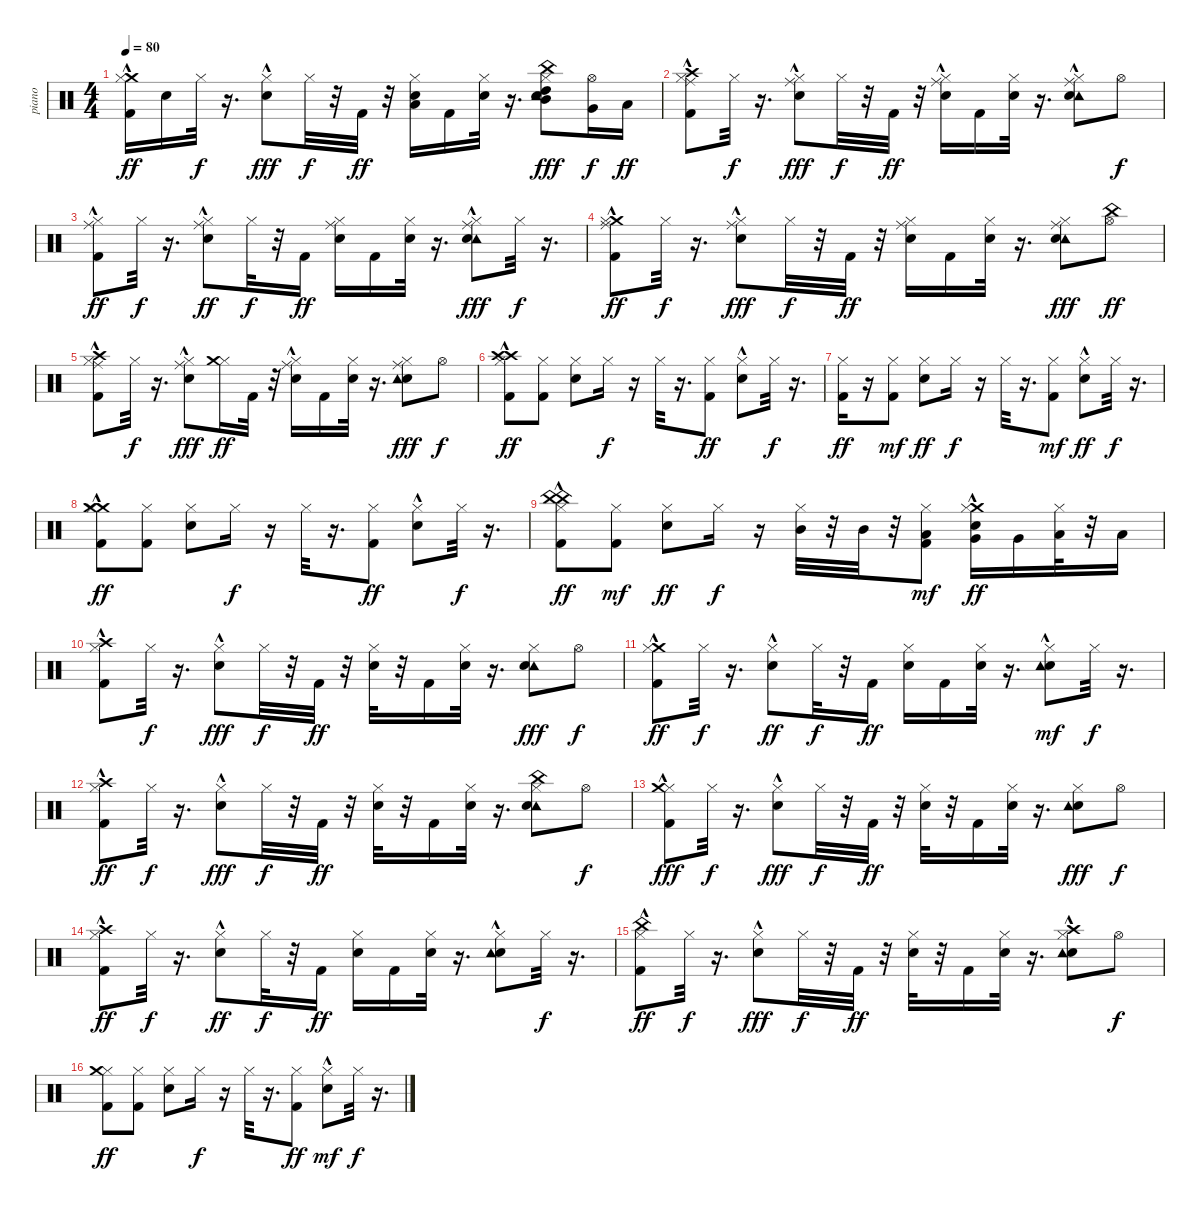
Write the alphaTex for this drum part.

\track ("piano" "piano") {instrument percussion}
\staff {score}
\articulation defaults
\ts (4 4)
\tempo 80
\clef neutral
\ks c
("Crash medium (hit)" "Kick (hit) 2"{hac} "Hi-Hat (closed)").16{dy ff} "Snare (hit) 2".16 "Hi-Hat (closed)".32{dy f} r.16{d} ("Hi-Hat (closed)" "Snare (hit) 2"{hac}).8{dy fff} "Hi-Hat (closed)".32{dy f} r.32 "Kick (hit) 2".32{dy ff} r.32 ("Hi-Hat (closed)" "Snare (hit) 2" "Low Floor Tom (hit)").16 "Kick (hit) 2".16 ("Hi-Hat (closed)" "Snare (hit) 2").32 r.16{d} ("Mid Tom (hit)" "Tambourine (hit)" "China (hit)" "Hi-Hat (closed)" "Snare (hit) 2" "High Tom (hit)").8{dy fff} ("Very Low Tom (hit)" "Hi-Hat (open)").16{dy f} "Low Floor Tom (hit)".16{dy ff} |
("Kick (hit) 2"{hac} "Hi-Hat (closed)" "Crash high (hit)"{hac} "Ride (middle)").8 "Hi-Hat (closed)".32{dy f} r.16{d} ("Ride (middle)"{hac} "Snare (hit) 2"{hac} "Hi-Hat (closed)").8{dy fff} "Hi-Hat (closed)".32{dy f} r.32 "Kick (hit) 2".32{dy ff} r.32 ("Snare (hit) 2" "Hi-Hat (closed)" "Ride (middle)"{hac}).16 "Kick (hit) 2".16 ("Hi-Hat (closed)" "Snare (hit) 2").32 r.16{d} ("Tambourine (hit)" "Hi-Hat (closed)" "Snare (hit) 2" "Ride (middle)"{hac}).8 "Hi-Hat (open)".8{dy f} |
("Kick (hit) 2"{hac} "Hi-Hat (closed)" "Ride (middle)"{hac}).8{dy ff} "Hi-Hat (closed)".32{dy f} r.16{d} ("Snare (hit) 2"{hac} "Hi-Hat (closed)" "Ride (middle)").8{dy ff} "Hi-Hat (closed)".32{dy f} r.32 "Kick (hit) 2".16{dy ff} ("Ride (middle)" "Snare (hit) 2" "Hi-Hat (closed)").16 "Kick (hit) 2".16 ("Snare (hit) 2" "Hi-Hat (closed)").32 r.16{d} ("Ride (middle)"{hac} "Tambourine (hit)"{hac} "Hi-Hat (closed)" "Snare (hit) 2").8{dy fff} "Hi-Hat (closed)".32{dy f} r.16{d} |
("Ride (middle)" "Crash medium (hit)"{hac} "Kick (hit) 2"{hac} "Hi-Hat (closed)").8{dy ff} "Hi-Hat (closed)".32{dy f} r.16{d} ("Ride (middle)" "Hi-Hat (closed)" "Snare (hit) 2"{hac}).8{dy fff} "Hi-Hat (closed)".32{dy f} r.32 "Kick (hit) 2".32{dy ff} r.32 ("Ride (middle)" "Snare (hit) 2" "Hi-Hat (closed)").16 "Kick (hit) 2".16 ("Hi-Hat (closed)" "Snare (hit) 2").32 r.16{d} ("Ride (middle)" "Hi-Hat (closed)" "Tambourine (hit)" "Snare (hit) 2").8{dy fff} ("Hi-Hat (open)" "China (hit)").8{dy ff} |
("Ride (middle)" "Crash high (hit)"{hac} "Hi-Hat (closed)" "Kick (hit) 2"{hac}).8 "Hi-Hat (closed)".32{dy f} r.16{d} ("Ride (middle)" "Snare (hit) 2"{hac} "Hi-Hat (closed)").8{dy fff} ("Hi-Hat (closed)" "Crash medium (hit)").16{dy ff} "Kick (hit) 2".32 r.32 ("Ride (middle)"{hac} "Hi-Hat (closed)" "Snare (hit) 2").16 "Kick (hit) 2".16 ("Snare (hit) 2" "Hi-Hat (closed)").32 r.16{d} ("Ride (middle)" "Snare (hit) 2" "Tambourine (hit)" "Hi-Hat (closed)").8{dy fff} "Hi-Hat (open)".8{dy f} |
("Hi-Hat (closed)" "Crash high (hit)"{hac} "Crash high (hit)"{hac} "Kick (hit) 2").8{dy ff} ("Hi-Hat (closed)" "Kick (hit) 2").8 ("Hi-Hat (closed)" "Snare (hit) 2").8 "Hi-Hat (closed)".16{dy f} r.16 "Hi-Hat (closed)".32 r.16{d} ("Hi-Hat (closed)" "Kick (hit) 2").8{dy ff} ("Hi-Hat (closed)" "Snare (hit) 2"{hac}).8 "Hi-Hat (closed)".32{dy f} r.16{d} |
("Hi-Hat (closed)" "Kick (hit) 2").16{dy ff} r.16 ("Kick (hit) 2" "Hi-Hat (closed)").8{dy mf} ("Snare (hit) 2" "Hi-Hat (closed)").8{dy ff} "Hi-Hat (closed)".16{dy f} r.16 "Hi-Hat (closed)".32 r.16{d} ("Kick (hit) 2" "Hi-Hat (closed)").8{dy mf} ("Hi-Hat (closed)" "Snare (hit) 2"{hac}).8{dy ff} "Hi-Hat (closed)".32{dy f} r.16{d} |
("Kick (hit) 2" "Crash medium (hit)"{hac} "Hi-Hat (closed)" "Crash medium (hit)"{hac}).8{dy ff} ("Hi-Hat (closed)" "Kick (hit) 2").8 ("Snare (hit) 2" "Hi-Hat (closed)").8 "Hi-Hat (closed)".16{dy f} r.16 "Hi-Hat (closed)".32 r.16{d} ("Hi-Hat (closed)" "Kick (hit) 2").8{dy ff} ("Hi-Hat (closed)" "Snare (hit) 2"{hac}).8 "Hi-Hat (closed)".32{dy f} r.16{d} |
("China (hit)"{hac} "China (hit)"{hac} "Hi-Hat (closed)" "Kick (hit) 2").8{dy ff} ("Kick (hit) 2" "Hi-Hat (closed)").8{dy mf} ("Snare (hit) 2" "Hi-Hat (closed)").8{dy ff} "Hi-Hat (closed)".16{dy f} r.16 ("Mid Tom (hit)" "Hi-Hat (closed)").32 r.32 "Mid Tom (hit)".32 r.32 ("Low Tom (hit)" "Kick (hit) 2" "Hi-Hat (closed)").8{dy mf} ("Crash medium (hit)"{hac} "Hi-Hat (closed)" "Very Low Tom (hit)" "Snare (hit) 2"{hac}).16{dy ff} "Very Low Tom (hit)".16 ("Low Floor Tom (hit)" "Hi-Hat (closed)").32 r.32 "Low Floor Tom (hit)".16 |
("Kick (hit) 2"{hac} "Crash high (hit)"{hac} "Hi-Hat (closed)").8 "Hi-Hat (closed)".32{dy f} r.16{d} ("Hi-Hat (closed)" "Snare (hit) 2"{hac}).8{dy fff} "Hi-Hat (closed)".32{dy f} r.32 "Kick (hit) 2".32{dy ff} r.32 ("Snare (hit) 2" "Hi-Hat (closed)").32 r.32 "Kick (hit) 2".16 ("Snare (hit) 2" "Hi-Hat (closed)").32 r.16{d} ("Hi-Hat (closed)" "Tambourine (hit)" "Snare (hit) 2").8{dy fff} "Hi-Hat (open)".8{dy f} |
("Crash medium (hit)" "Kick (hit) 2"{hac} "Hi-Hat (closed)").8{dy ff} "Hi-Hat (closed)".32{dy f} r.16{d} ("Snare (hit) 2"{hac} "Hi-Hat (closed)").8{dy ff} "Hi-Hat (closed)".32{dy f} r.32 "Kick (hit) 2".16{dy ff} ("Hi-Hat (closed)" "Snare (hit) 2").16 "Kick (hit) 2".16 ("Hi-Hat (closed)" "Snare (hit) 2").32 r.16{d} ("Snare (hit) 2" "Tambourine (hit)"{hac} "Hi-Hat (closed)").8{dy mf} "Hi-Hat (closed)".32{dy f} r.16{d} |
("Hi-Hat (closed)" "Kick (hit) 2"{hac} "Crash high (hit)").8{dy ff} "Hi-Hat (closed)".32{dy f} r.16{d} ("Snare (hit) 2"{hac} "Hi-Hat (closed)").8{dy fff} "Hi-Hat (closed)".32{dy f} r.32 "Kick (hit) 2".32{dy ff} r.32 ("Snare (hit) 2" "Hi-Hat (closed)").32 r.32 "Kick (hit) 2".16 ("Snare (hit) 2" "Hi-Hat (closed)").32 r.16{d} ("Tambourine (hit)" "Snare (hit) 2" "Hi-Hat (closed)" "China (hit)").8 "Hi-Hat (open)".8{dy f} |
("Hi-Hat (closed)" "Kick (hit) 2"{hac} "Crash medium (hit)").8{dy fff} "Hi-Hat (closed)".32{dy f} r.16{d} ("Hi-Hat (closed)" "Snare (hit) 2"{hac}).8{dy fff} "Hi-Hat (closed)".32{dy f} r.32 "Kick (hit) 2".32{dy ff} r.32 ("Hi-Hat (closed)" "Snare (hit) 2").32 r.32 "Kick (hit) 2".16 ("Hi-Hat (closed)" "Snare (hit) 2").32 r.16{d} ("Snare (hit) 2" "Tambourine (hit)" "Hi-Hat (closed)").8{dy fff} "Hi-Hat (open)".8{dy f} |
("Hi-Hat (closed)" "Kick (hit) 2"{hac} "Crash high (hit)").8{dy ff} "Hi-Hat (closed)".32{dy f} r.16{d} ("Hi-Hat (closed)" "Snare (hit) 2"{hac}).8{dy ff} "Hi-Hat (closed)".32{dy f} r.32 "Kick (hit) 2".16{dy ff} ("Snare (hit) 2" "Hi-Hat (closed)").16 "Kick (hit) 2".16 ("Snare (hit) 2" "Hi-Hat (closed)").32 r.16{d} ("Hi-Hat (closed)" "Snare (hit) 2" "Tambourine (hit)"{hac}).8 "Hi-Hat (closed)".32{dy f} r.16{d} |
("Hi-Hat (closed)" "China (hit)" "Kick (hit) 2"{hac}).8{dy ff} "Hi-Hat (closed)".32{dy f} r.16{d} ("Hi-Hat (closed)" "Snare (hit) 2"{hac}).8{dy fff} "Hi-Hat (closed)".32{dy f} r.32 "Kick (hit) 2".32{dy ff} r.32 ("Snare (hit) 2" "Hi-Hat (closed)").32 r.32 "Kick (hit) 2".16 ("Hi-Hat (closed)" "Snare (hit) 2").32 r.16{d} ("Snare (hit) 2" "Crash high (hit)"{hac} "Tambourine (hit)" "Hi-Hat (closed)").8 "Hi-Hat (open)".8{dy f} |
("Hi-Hat (closed)" "Crash medium (hit)" "Kick (hit) 2").8{dy ff} ("Hi-Hat (closed)" "Kick (hit) 2").8 ("Hi-Hat (closed)" "Snare (hit) 2").8 "Hi-Hat (closed)".16{dy f} r.16 "Hi-Hat (closed)".32 r.16{d} ("Hi-Hat (closed)" "Kick (hit) 2").8{dy ff} ("Snare (hit) 2"{hac} "Hi-Hat (closed)").8{dy mf} "Hi-Hat (closed)".32{dy f} r.16{d}
